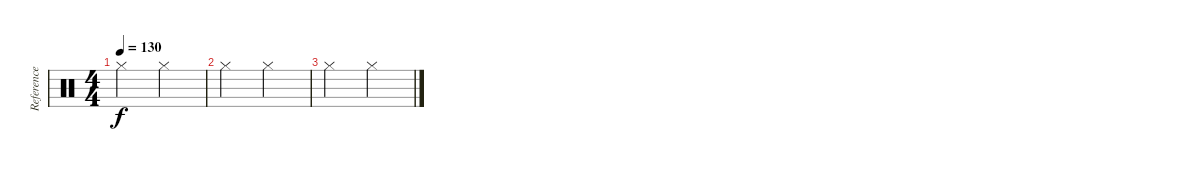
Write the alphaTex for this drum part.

\track ("Reference metronome" "Reference ") {instrument percussion}
\staff {score}
\articulation defaults
\ts (4 4)
\tempo 130
\clef neutral
\ks c "Hi-Hat (closed)".2{dy f} "Hi-Hat (closed)".2
|
"Hi-Hat (closed)".2 "Hi-Hat (closed)".2 |
"Hi-Hat (closed)".2 "Hi-Hat (closed)".2
